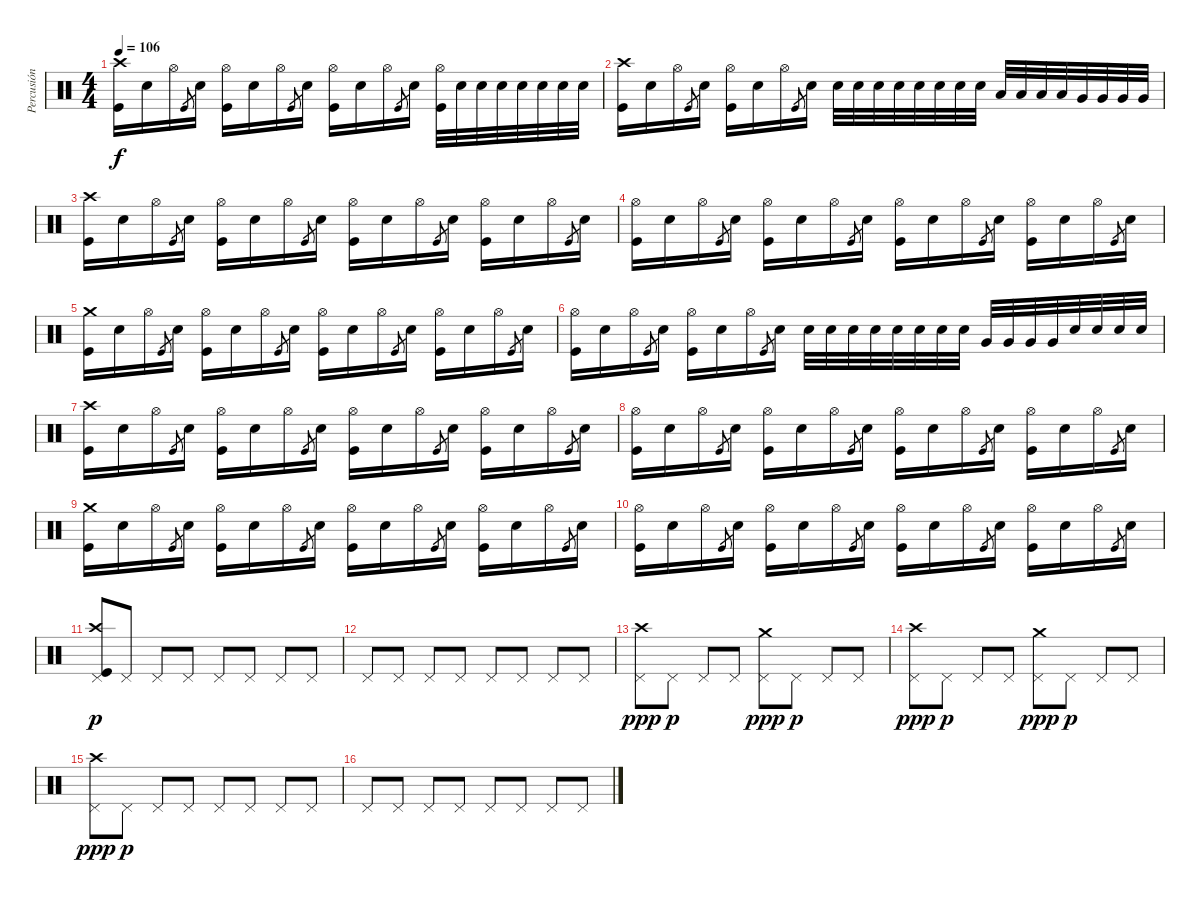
\track ("Percusión" "Percusión") {instrument percussion}
\staff {score}
\articulation defaults
\ts (4 4)
\tempo 106
\clef neutral
\ks c
("Kick (hit)" "Crash high (hit)").16{dy f} "Snare (hit) 2".16 "Hi-Hat (open)".16 "Kick (hit)".8{gr} "Snare (hit) 2".16 ("Kick (hit)" "Hi-Hat (open)").16 "Snare (hit) 2".16 "Hi-Hat (open)".16 "Kick (hit)".8{gr} "Snare (hit) 2".16 ("Kick (hit)" "Hi-Hat (open)").16 "Snare (hit) 2".16 "Hi-Hat (open)".16 "Kick (hit)".8{gr} "Snare (hit) 2".16 ("Kick (hit)" "Hi-Hat (open)").32 "Snare (hit) 2".32 "Snare (hit) 2".32 "Snare (hit) 2".32 "Snare (hit) 2".32 "Snare (hit) 2".32 "Snare (hit) 2".32 "Snare (hit) 2".32 |
("Kick (hit)" "Crash high (hit)").16 "Snare (hit) 2".16 "Hi-Hat (open)".16 "Kick (hit)".8{gr} "Snare (hit) 2".16 ("Kick (hit)" "Hi-Hat (open)").16 "Snare (hit) 2".16 "Hi-Hat (open)".16 "Kick (hit)".8{gr} "Snare (hit) 2".16 "Snare (hit) 2".32 "Snare (hit) 2".32 "Snare (hit) 2".32 "Snare (hit) 2".32 "Snare (hit) 2".32 "Snare (hit) 2".32 "Snare (hit) 2".32 "Snare (hit) 2".32 "Low Tom (hit)".32 "Low Tom (hit)".32 "Low Tom (hit)".32 "Low Tom (hit)".32 "Very Low Tom (hit)".32 "Very Low Tom (hit)".32 "Very Low Tom (hit)".32 "Very Low Tom (hit)".32 |
("Kick (hit)" "Crash high (hit)").16 "Snare (hit) 2".16 "Hi-Hat (open)".16 "Kick (hit)".8{gr} "Snare (hit) 2".16 ("Kick (hit)" "Hi-Hat (open)").16 "Snare (hit) 2".16 "Hi-Hat (open)".16 "Kick (hit)".8{gr} "Snare (hit) 2".16 ("Kick (hit)" "Hi-Hat (open)").16 "Snare (hit) 2".16 "Hi-Hat (open)".16 "Kick (hit)".8{gr} "Snare (hit) 2".16 ("Kick (hit)" "Hi-Hat (open)").16 "Snare (hit) 2".16 "Hi-Hat (open)".16 "Kick (hit)".8{gr} "Snare (hit) 2".16 |
("Kick (hit)" "Hi-Hat (open)").16 "Snare (hit) 2".16 "Hi-Hat (open)".16 "Kick (hit)".8{gr} "Snare (hit) 2".16 ("Kick (hit)" "Hi-Hat (open)").16 "Snare (hit) 2".16 "Hi-Hat (open)".16 "Kick (hit)".8{gr} "Snare (hit) 2".16 ("Kick (hit)" "Hi-Hat (open)").16 "Snare (hit) 2".16 "Hi-Hat (open)".16 "Kick (hit)".8{gr} "Snare (hit) 2".16 ("Kick (hit)" "Hi-Hat (open)").16 "Snare (hit) 2".16 "Hi-Hat (open)".16 "Kick (hit)".8{gr} "Snare (hit) 2".16 |
("Kick (hit)" "Crash medium (hit)").16 "Snare (hit) 2".16 "Hi-Hat (open)".16 "Kick (hit)".8{gr} "Snare (hit) 2".16 ("Kick (hit)" "Hi-Hat (open)").16 "Snare (hit) 2".16 "Hi-Hat (open)".16 "Kick (hit)".8{gr} "Snare (hit) 2".16 ("Kick (hit)" "Hi-Hat (open)").16 "Snare (hit) 2".16 "Hi-Hat (open)".16 "Kick (hit)".8{gr} "Snare (hit) 2".16 ("Kick (hit)" "Hi-Hat (open)").16 "Snare (hit) 2".16 "Hi-Hat (open)".16 "Kick (hit)".8{gr} "Snare (hit) 2".16 |
("Kick (hit)" "Hi-Hat (open)").16 "Snare (hit) 2".16 "Hi-Hat (open)".16 "Kick (hit)".8{gr} "Snare (hit) 2".16 ("Kick (hit)" "Hi-Hat (open)").16 "Snare (hit) 2".16 "Hi-Hat (open)".16 "Kick (hit)".8{gr} "Snare (hit) 2".16 "Snare (hit) 2".32 "Snare (hit) 2".32 "Snare (hit) 2".32 "Snare (hit) 2".32 "Snare (hit) 2".32 "Snare (hit) 2".32 "Snare (hit) 2".32 "Snare (hit) 2".32 "Very Low Tom (hit)".32 "Very Low Tom (hit)".32 "Very Low Tom (hit)".32 "Very Low Tom (hit)".32 "Snare (hit) 2".32 "Snare (hit) 2".32 "Snare (hit) 2".32 "Snare (hit) 2".32 |
("Kick (hit)" "Crash high (hit)").16 "Snare (hit) 2".16 "Hi-Hat (open)".16 "Kick (hit)".8{gr} "Snare (hit) 2".16 ("Kick (hit)" "Hi-Hat (open)").16 "Snare (hit) 2".16 "Hi-Hat (open)".16 "Kick (hit)".8{gr} "Snare (hit) 2".16 ("Kick (hit)" "Hi-Hat (open)").16 "Snare (hit) 2".16 "Hi-Hat (open)".16 "Kick (hit)".8{gr} "Snare (hit) 2".16 ("Kick (hit)" "Hi-Hat (open)").16 "Snare (hit) 2".16 "Hi-Hat (open)".16 "Kick (hit)".8{gr} "Snare (hit) 2".16 |
("Kick (hit)" "Hi-Hat (open)").16 "Snare (hit) 2".16 "Hi-Hat (open)".16 "Kick (hit)".8{gr} "Snare (hit) 2".16 ("Kick (hit)" "Hi-Hat (open)").16 "Snare (hit) 2".16 "Hi-Hat (open)".16 "Kick (hit)".8{gr} "Snare (hit) 2".16 ("Kick (hit)" "Hi-Hat (open)").16 "Snare (hit) 2".16 "Hi-Hat (open)".16 "Kick (hit)".8{gr} "Snare (hit) 2".16 ("Kick (hit)" "Hi-Hat (open)").16 "Snare (hit) 2".16 "Hi-Hat (open)".16 "Kick (hit)".8{gr} "Snare (hit) 2".16 |
("Kick (hit)" "Crash medium (hit)").16 "Snare (hit) 2".16 "Hi-Hat (open)".16 "Kick (hit)".8{gr} "Snare (hit) 2".16 ("Kick (hit)" "Hi-Hat (open)").16 "Snare (hit) 2".16 "Hi-Hat (open)".16 "Kick (hit)".8{gr} "Snare (hit) 2".16 ("Kick (hit)" "Hi-Hat (open)").16 "Snare (hit) 2".16 "Hi-Hat (open)".16 "Kick (hit)".8{gr} "Snare (hit) 2".16 ("Kick (hit)" "Hi-Hat (open)").16 "Snare (hit) 2".16 "Hi-Hat (open)".16 "Kick (hit)".8{gr} "Snare (hit) 2".16 |
("Kick (hit)" "Hi-Hat (open)").16 "Snare (hit) 2".16 "Hi-Hat (open)".16 "Kick (hit)".8{gr} "Snare (hit) 2".16 ("Kick (hit)" "Hi-Hat (open)").16 "Snare (hit) 2".16 "Hi-Hat (open)".16 "Kick (hit)".8{gr} "Snare (hit) 2".16 ("Kick (hit)" "Hi-Hat (open)").16 "Snare (hit) 2".16 "Hi-Hat (open)".16 "Kick (hit)".8{gr} "Snare (hit) 2".16 ("Kick (hit)" "Hi-Hat (open)").16 "Snare (hit) 2".16 "Hi-Hat (open)".16 "Kick (hit)".8{gr} "Snare (hit) 2".16 |
("Kick (hit)" "Pedal Hi-Hat (hit)" "Crash high (hit)").8{dy p} "Pedal Hi-Hat (hit)".8 "Pedal Hi-Hat (hit)".8 "Pedal Hi-Hat (hit)".8 "Pedal Hi-Hat (hit)".8 "Pedal Hi-Hat (hit)".8 "Pedal Hi-Hat (hit)".8 "Pedal Hi-Hat (hit)".8 |
"Pedal Hi-Hat (hit)".8 "Pedal Hi-Hat (hit)".8 "Pedal Hi-Hat (hit)".8 "Pedal Hi-Hat (hit)".8 "Pedal Hi-Hat (hit)".8 "Pedal Hi-Hat (hit)".8 "Pedal Hi-Hat (hit)".8 "Pedal Hi-Hat (hit)".8 |
("Pedal Hi-Hat (hit)" "Crash high (hit)").8{dy ppp} "Pedal Hi-Hat (hit)".8{dy p} "Pedal Hi-Hat (hit)".8 "Pedal Hi-Hat (hit)".8 ("Pedal Hi-Hat (hit)" "Crash medium (hit)").8{dy ppp} "Pedal Hi-Hat (hit)".8{dy p} "Pedal Hi-Hat (hit)".8 "Pedal Hi-Hat (hit)".8 |
("Pedal Hi-Hat (hit)" "Crash high (hit)").8{dy ppp} "Pedal Hi-Hat (hit)".8{dy p} "Pedal Hi-Hat (hit)".8 "Pedal Hi-Hat (hit)".8 ("Pedal Hi-Hat (hit)" "Crash medium (hit)").8{dy ppp} "Pedal Hi-Hat (hit)".8{dy p} "Pedal Hi-Hat (hit)".8 "Pedal Hi-Hat (hit)".8 |
("Pedal Hi-Hat (hit)" "Crash high (hit)").8{dy ppp} "Pedal Hi-Hat (hit)".8{dy p} "Pedal Hi-Hat (hit)".8 "Pedal Hi-Hat (hit)".8 "Pedal Hi-Hat (hit)".8 "Pedal Hi-Hat (hit)".8 "Pedal Hi-Hat (hit)".8 "Pedal Hi-Hat (hit)".8 |
"Pedal Hi-Hat (hit)".8 "Pedal Hi-Hat (hit)".8 "Pedal Hi-Hat (hit)".8 "Pedal Hi-Hat (hit)".8 "Pedal Hi-Hat (hit)".8 "Pedal Hi-Hat (hit)".8 "Pedal Hi-Hat (hit)".8 "Pedal Hi-Hat (hit)".8
